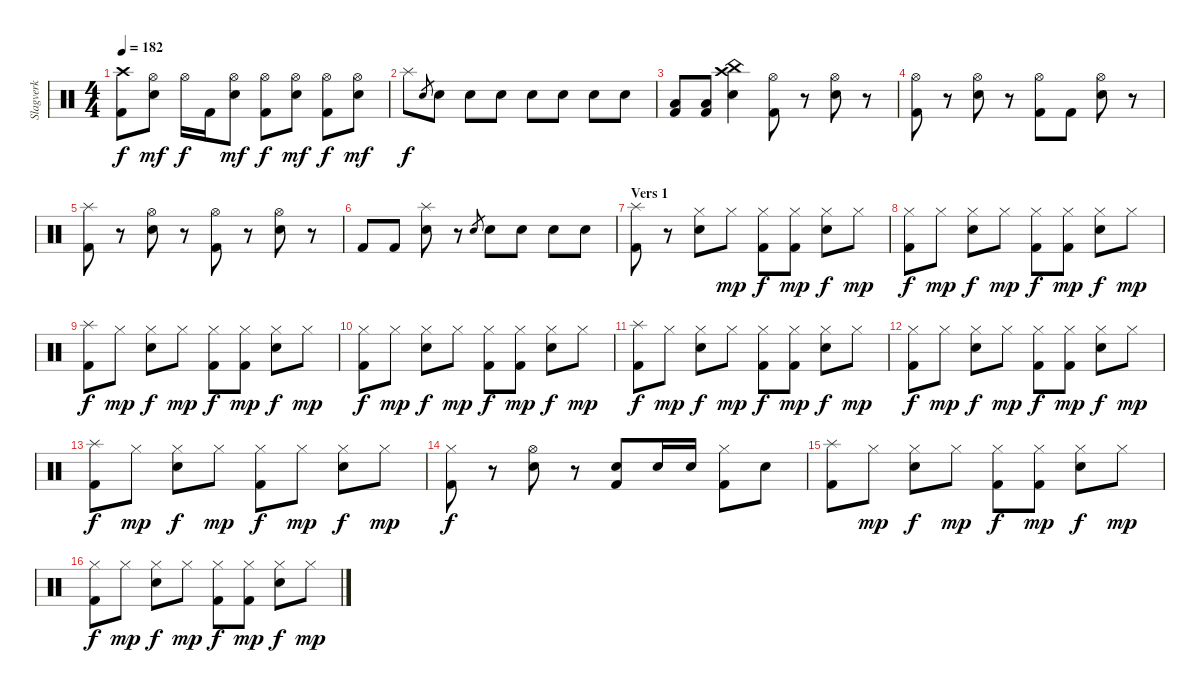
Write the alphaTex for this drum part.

\track ("Slagverk" "Slagverk") {instrument percussion}
\staff {score}
\articulation defaults
\ts (4 4)
\tempo 182
\clef neutral
\ks c
("Crash high (hit)" "Kick (hit) 2").8{dy f} ("Hi-Hat (open)" "Electric Snare (hit)").8{dy mf} "Hi-Hat (open)".16{dy f} "Kick (hit) 2".16 ("Hi-Hat (open)" "Electric Snare (hit)").8{dy mf} ("Hi-Hat (open)" "Kick (hit) 2").8{dy f} ("Hi-Hat (open)" "Electric Snare (hit)").8{dy mf} ("Hi-Hat (open)" "Kick (hit) 2").8{dy f} ("Hi-Hat (open)" "Electric Snare (hit)").8{dy mf} |
"Splash (hit)".8{dy f} "Electric Snare (hit)".8{gr} "Electric Snare (hit)".8 "Electric Snare (hit)".8 "Electric Snare (hit)".8 "Electric Snare (hit)".8 "Electric Snare (hit)".8 "Electric Snare (hit)".8 "Electric Snare (hit)".8 |
("Low Floor Tom (hit)" "Kick (hit) 2").8 ("Low Floor Tom (hit)" "Kick (hit) 2").8 ("Crash high (hit)" "China (hit)" "Electric Snare (hit)").4 ("Hi-Hat (open)" "Kick (hit) 2").8 r.8 ("Hi-Hat (open)" "Electric Snare (hit)").8 r.8 |
("Hi-Hat (open)" "Kick (hit) 2").8 r.8 ("Hi-Hat (open)" "Electric Snare (hit)").8 r.8 ("Hi-Hat (open)" "Kick (hit) 2").8 "Kick (hit) 2".8 ("Hi-Hat (open)" "Electric Snare (hit)").8 r.8 |
("Splash (hit)" "Kick (hit) 2").8 r.8 ("Hi-Hat (open)" "Electric Snare (hit)").8 r.8 ("Hi-Hat (open)" "Kick (hit) 2").8 r.8 ("Hi-Hat (open)" "Electric Snare (hit)").8 r.8 |
"Kick (hit) 2".8 "Kick (hit) 2".8 ("Splash (hit)" "Electric Snare (hit)").8 r.8 "Electric Snare (hit)".8{gr} "Electric Snare (hit)".8 "Electric Snare (hit)".8 "Electric Snare (hit)".8 "Electric Snare (hit)".8 |
\section ("" "Vers 1")
("Splash (hit)" "Kick (hit) 2").8 r.8 ("Hi-Hat (closed)" "Electric Snare (hit)").8 "Hi-Hat (closed)".8{dy mp} ("Hi-Hat (closed)" "Kick (hit) 2").8{dy f} ("Hi-Hat (closed)" "Kick (hit) 2").8{dy mp} ("Hi-Hat (closed)" "Electric Snare (hit)").8{dy f} "Hi-Hat (closed)".8{dy mp} |
("Hi-Hat (closed)" "Kick (hit) 2").8{dy f} "Hi-Hat (closed)".8{dy mp} ("Hi-Hat (closed)" "Electric Snare (hit)").8{dy f} "Hi-Hat (closed)".8{dy mp} ("Hi-Hat (closed)" "Kick (hit) 2").8{dy f} ("Hi-Hat (closed)" "Kick (hit) 2").8{dy mp} ("Hi-Hat (closed)" "Electric Snare (hit)").8{dy f} "Hi-Hat (closed)".8{dy mp} |
("Splash (hit)" "Kick (hit) 2").8{dy f} "Hi-Hat (closed)".8{dy mp} ("Hi-Hat (closed)" "Electric Snare (hit)").8{dy f} "Hi-Hat (closed)".8{dy mp} ("Hi-Hat (closed)" "Kick (hit) 2").8{dy f} ("Hi-Hat (closed)" "Kick (hit) 2").8{dy mp} ("Hi-Hat (closed)" "Electric Snare (hit)").8{dy f} "Hi-Hat (closed)".8{dy mp} |
("Hi-Hat (closed)" "Kick (hit) 2").8{dy f} "Hi-Hat (closed)".8{dy mp} ("Hi-Hat (closed)" "Electric Snare (hit)").8{dy f} "Hi-Hat (closed)".8{dy mp} ("Hi-Hat (closed)" "Kick (hit) 2").8{dy f} ("Hi-Hat (closed)" "Kick (hit) 2").8{dy mp} ("Hi-Hat (closed)" "Electric Snare (hit)").8{dy f} "Hi-Hat (closed)".8{dy mp} |
("Splash (hit)" "Kick (hit) 2").8{dy f} "Hi-Hat (closed)".8{dy mp} ("Hi-Hat (closed)" "Electric Snare (hit)").8{dy f} "Hi-Hat (closed)".8{dy mp} ("Hi-Hat (closed)" "Kick (hit) 2").8{dy f} ("Hi-Hat (closed)" "Kick (hit) 2").8{dy mp} ("Hi-Hat (closed)" "Electric Snare (hit)").8{dy f} "Hi-Hat (closed)".8{dy mp} |
("Hi-Hat (closed)" "Kick (hit) 2").8{dy f} "Hi-Hat (closed)".8{dy mp} ("Hi-Hat (closed)" "Electric Snare (hit)").8{dy f} "Hi-Hat (closed)".8{dy mp} ("Hi-Hat (closed)" "Kick (hit) 2").8{dy f} ("Hi-Hat (closed)" "Kick (hit) 2").8{dy mp} ("Hi-Hat (closed)" "Electric Snare (hit)").8{dy f} "Hi-Hat (closed)".8{dy mp} |
("Splash (hit)" "Kick (hit) 2").8{dy f} "Hi-Hat (closed)".8{dy mp} ("Hi-Hat (closed)" "Electric Snare (hit)").8{dy f} "Hi-Hat (closed)".8{dy mp} ("Hi-Hat (closed)" "Kick (hit) 2").8{dy f} "Hi-Hat (closed)".8{dy mp} ("Hi-Hat (closed)" "Electric Snare (hit)").8{dy f} "Hi-Hat (closed)".8{dy mp} |
("Hi-Hat (closed)" "Kick (hit) 2").8{dy f} r.8 ("Hi-Hat (open)" "Electric Snare (hit)").8 r.8 ("Electric Snare (hit)" "Kick (hit) 2").8 "Electric Snare (hit)".16 "Electric Snare (hit)".16 ("Hi-Hat (closed)" "Kick (hit) 2").8 "Electric Snare (hit)".8 |
("Splash (hit)" "Kick (hit) 2").8 "Hi-Hat (closed)".8{dy mp} ("Hi-Hat (closed)" "Electric Snare (hit)").8{dy f} "Hi-Hat (closed)".8{dy mp} ("Hi-Hat (closed)" "Kick (hit) 2").8{dy f} ("Hi-Hat (closed)" "Kick (hit) 2").8{dy mp} ("Hi-Hat (closed)" "Electric Snare (hit)").8{dy f} "Hi-Hat (closed)".8{dy mp} |
("Hi-Hat (closed)" "Kick (hit) 2").8{dy f} "Hi-Hat (closed)".8{dy mp} ("Hi-Hat (closed)" "Electric Snare (hit)").8{dy f} "Hi-Hat (closed)".8{dy mp} ("Hi-Hat (closed)" "Kick (hit) 2").8{dy f} ("Hi-Hat (closed)" "Kick (hit) 2").8{dy mp} ("Hi-Hat (closed)" "Electric Snare (hit)").8{dy f} "Hi-Hat (closed)".8{dy mp}
